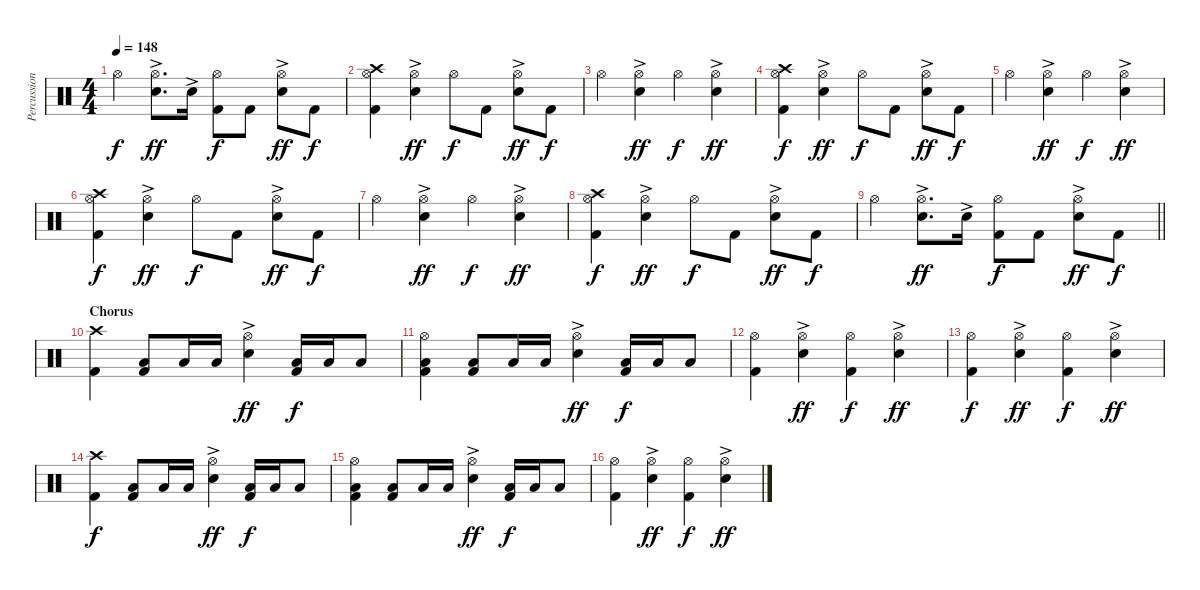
\track ("Percussion" "Percussion") {instrument percussion}
\staff {score}
\articulation defaults
\ts (4 4)
\tempo 148
\clef neutral
\ks c "Hi-Hat (open)".4{dy f}
("Hi-Hat (open)" "Electric Snare (hit)"{ac}).8{d dy ff} "Electric Snare (hit)"{ac}.16 ("Hi-Hat (open)" "Kick (hit) 2").8{dy f} "Kick (hit) 2".8 ("Hi-Hat (open)" "Electric Snare (hit)"{ac}).8{dy ff} "Kick (hit) 2".8{dy f} |
("Crash high (hit)" "Hi-Hat (open)" "Kick (hit) 2").4 ("Hi-Hat (open)" "Electric Snare (hit)"{ac}).4{dy ff} "Hi-Hat (open)".8{dy f} "Kick (hit) 2".8 ("Hi-Hat (open)" "Electric Snare (hit)"{ac}).8{dy ff} "Kick (hit) 2".8{dy f} |
"Hi-Hat (open)".4 ("Hi-Hat (open)" "Electric Snare (hit)"{ac}).4{dy ff} "Hi-Hat (open)".4{dy f} ("Hi-Hat (open)" "Electric Snare (hit)"{ac}).4{dy ff} |
("Crash high (hit)" "Hi-Hat (open)" "Kick (hit) 2").4{dy f} ("Hi-Hat (open)" "Electric Snare (hit)"{ac}).4{dy ff} "Hi-Hat (open)".8{dy f} "Kick (hit) 2".8 ("Hi-Hat (open)" "Electric Snare (hit)"{ac}).8{dy ff} "Kick (hit) 2".8{dy f} |
"Hi-Hat (open)".4 ("Hi-Hat (open)" "Electric Snare (hit)"{ac}).4{dy ff} "Hi-Hat (open)".4{dy f} ("Hi-Hat (open)" "Electric Snare (hit)"{ac}).4{dy ff} |
("Crash high (hit)" "Hi-Hat (open)" "Kick (hit) 2").4{dy f} ("Hi-Hat (open)" "Electric Snare (hit)"{ac}).4{dy ff} "Hi-Hat (open)".8{dy f} "Kick (hit) 2".8 ("Hi-Hat (open)" "Electric Snare (hit)"{ac}).8{dy ff} "Kick (hit) 2".8{dy f} |
"Hi-Hat (open)".4 ("Hi-Hat (open)" "Electric Snare (hit)"{ac}).4{dy ff} "Hi-Hat (open)".4{dy f} ("Hi-Hat (open)" "Electric Snare (hit)"{ac}).4{dy ff} |
("Crash high (hit)" "Hi-Hat (open)" "Kick (hit) 2").4{dy f} ("Hi-Hat (open)" "Electric Snare (hit)"{ac}).4{dy ff} "Hi-Hat (open)".8{dy f} "Kick (hit) 2".8 ("Hi-Hat (open)" "Electric Snare (hit)"{ac}).8{dy ff} "Kick (hit) 2".8{dy f} |
\barLineRight lightlight "Hi-Hat (open)".4
("Hi-Hat (open)" "Electric Snare (hit)"{ac}).8{d dy ff} "Electric Snare (hit)"{ac}.16 ("Hi-Hat (open)" "Kick (hit) 2").8{dy f} "Kick (hit) 2".8 ("Hi-Hat (open)" "Electric Snare (hit)"{ac}).8{dy ff} "Kick (hit) 2".8{dy f} |
\section ("" "Chorus")
("Crash high (hit)" "Kick (hit) 2").4 ("Low Tom (hit)" "Kick (hit) 2").8 "Low Tom (hit)".16 "Low Tom (hit)".16 ("Hi-Hat (open)" "Electric Snare (hit)"{ac}).4{dy ff} ("Low Tom (hit)" "Kick (hit) 2").16{dy f} "Low Tom (hit)".16 "Low Tom (hit)".8 |
("Hi-Hat (open)" "Low Tom (hit)" "Kick (hit) 2").4 ("Low Tom (hit)" "Kick (hit) 2").8 "Low Tom (hit)".16 "Low Tom (hit)".16 ("Hi-Hat (open)" "Electric Snare (hit)"{ac}).4{dy ff} ("Low Tom (hit)" "Kick (hit) 2").16{dy f} "Low Tom (hit)".16 "Low Tom (hit)".8 |
("Hi-Hat (open)" "Kick (hit) 2").4 ("Hi-Hat (open)" "Electric Snare (hit)"{ac}).4{dy ff} ("Hi-Hat (open)" "Kick (hit) 2").4{dy f} ("Hi-Hat (open)" "Electric Snare (hit)"{ac}).4{dy ff} |
("Hi-Hat (open)" "Kick (hit) 2").4{dy f} ("Hi-Hat (open)" "Electric Snare (hit)"{ac}).4{dy ff} ("Hi-Hat (open)" "Kick (hit) 2").4{dy f} ("Hi-Hat (open)" "Electric Snare (hit)"{ac}).4{dy ff} |
("Crash high (hit)" "Kick (hit) 2").4{dy f} ("Low Tom (hit)" "Kick (hit) 2").8 "Low Tom (hit)".16 "Low Tom (hit)".16 ("Hi-Hat (open)" "Electric Snare (hit)"{ac}).4{dy ff} ("Low Tom (hit)" "Kick (hit) 2").16{dy f} "Low Tom (hit)".16 "Low Tom (hit)".8 |
("Hi-Hat (open)" "Low Tom (hit)" "Kick (hit) 2").4 ("Low Tom (hit)" "Kick (hit) 2").8 "Low Tom (hit)".16 "Low Tom (hit)".16 ("Hi-Hat (open)" "Electric Snare (hit)"{ac}).4{dy ff} ("Low Tom (hit)" "Kick (hit) 2").16{dy f} "Low Tom (hit)".16 "Low Tom (hit)".8 |
("Hi-Hat (open)" "Kick (hit) 2").4 ("Hi-Hat (open)" "Electric Snare (hit)"{ac}).4{dy ff} ("Hi-Hat (open)" "Kick (hit) 2").4{dy f} ("Hi-Hat (open)" "Electric Snare (hit)"{ac}).4{dy ff}
